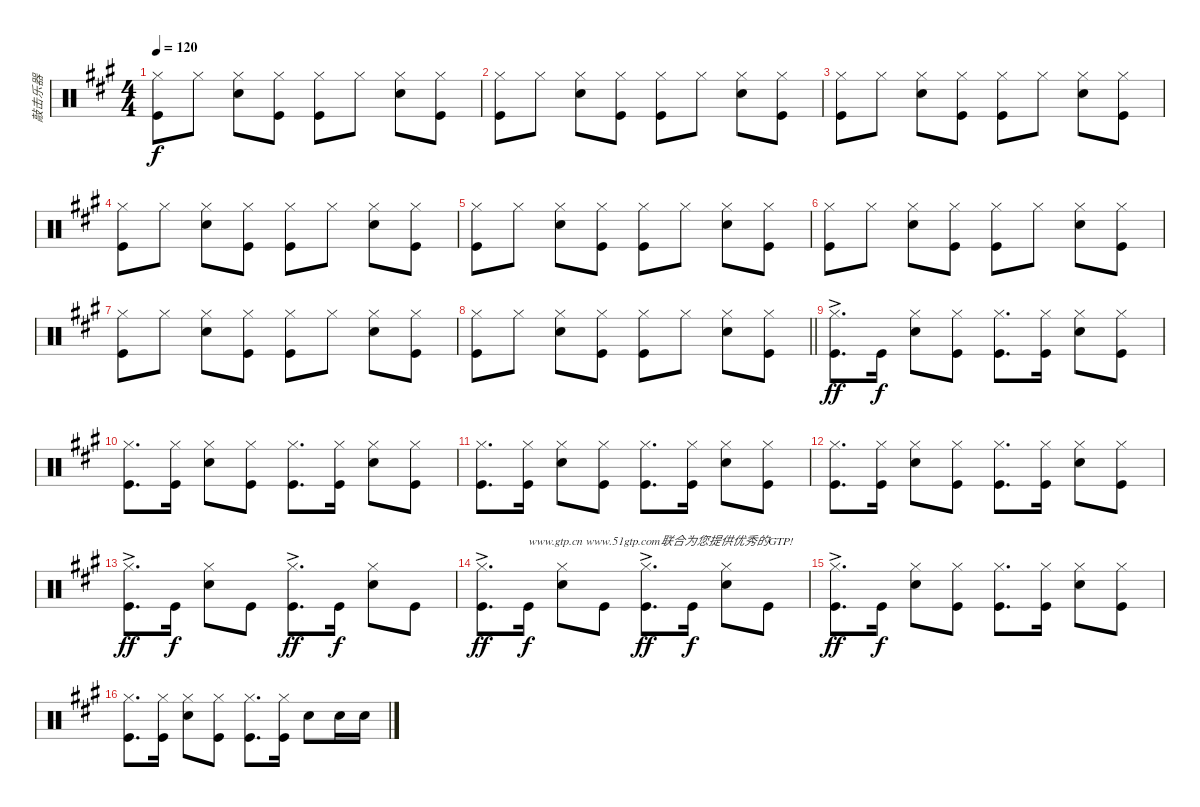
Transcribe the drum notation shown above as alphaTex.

\track ("敲击乐器" "敲击乐器") {instrument percussion}
\staff {score}
\articulation defaults
\ts (4 4)
\tempo 120
\clef neutral
\ks a
("Hi-Hat (closed)" "Kick (hit)").8{dy f} "Hi-Hat (closed)".8 ("Hi-Hat (closed)" "Snare (hit) 2").8 ("Hi-Hat (closed)" "Kick (hit)").8 ("Hi-Hat (closed)" "Kick (hit)").8 "Hi-Hat (closed)".8 ("Hi-Hat (closed)" "Snare (hit) 2").8 ("Hi-Hat (closed)" "Kick (hit)").8 |
("Hi-Hat (closed)" "Kick (hit)").8 "Hi-Hat (closed)".8 ("Hi-Hat (closed)" "Snare (hit) 2").8 ("Hi-Hat (closed)" "Kick (hit)").8 ("Hi-Hat (closed)" "Kick (hit)").8 "Hi-Hat (closed)".8 ("Hi-Hat (closed)" "Snare (hit) 2").8 ("Hi-Hat (closed)" "Kick (hit)").8 |
("Hi-Hat (closed)" "Kick (hit)").8 "Hi-Hat (closed)".8 ("Hi-Hat (closed)" "Snare (hit) 2").8 ("Hi-Hat (closed)" "Kick (hit)").8 ("Hi-Hat (closed)" "Kick (hit)").8 "Hi-Hat (closed)".8 ("Hi-Hat (closed)" "Snare (hit) 2").8 ("Hi-Hat (closed)" "Kick (hit)").8 |
("Hi-Hat (closed)" "Kick (hit)").8 "Hi-Hat (closed)".8 ("Hi-Hat (closed)" "Snare (hit) 2").8 ("Hi-Hat (closed)" "Kick (hit)").8 ("Hi-Hat (closed)" "Kick (hit)").8 "Hi-Hat (closed)".8 ("Hi-Hat (closed)" "Snare (hit) 2").8 ("Hi-Hat (closed)" "Kick (hit)").8 |
("Hi-Hat (closed)" "Kick (hit)").8 "Hi-Hat (closed)".8 ("Hi-Hat (closed)" "Snare (hit) 2").8 ("Hi-Hat (closed)" "Kick (hit)").8 ("Hi-Hat (closed)" "Kick (hit)").8 "Hi-Hat (closed)".8 ("Hi-Hat (closed)" "Snare (hit) 2").8 ("Hi-Hat (closed)" "Kick (hit)").8 |
("Hi-Hat (closed)" "Kick (hit)").8 "Hi-Hat (closed)".8 ("Hi-Hat (closed)" "Snare (hit) 2").8 ("Hi-Hat (closed)" "Kick (hit)").8 ("Hi-Hat (closed)" "Kick (hit)").8 "Hi-Hat (closed)".8 ("Hi-Hat (closed)" "Snare (hit) 2").8 ("Hi-Hat (closed)" "Kick (hit)").8 |
("Hi-Hat (closed)" "Kick (hit)").8 "Hi-Hat (closed)".8 ("Hi-Hat (closed)" "Snare (hit) 2").8 ("Hi-Hat (closed)" "Kick (hit)").8 ("Hi-Hat (closed)" "Kick (hit)").8 "Hi-Hat (closed)".8 ("Hi-Hat (closed)" "Snare (hit) 2").8 ("Hi-Hat (closed)" "Kick (hit)").8 |
\barLineRight lightlight
("Hi-Hat (closed)" "Kick (hit)").8 "Hi-Hat (closed)".8 ("Hi-Hat (closed)" "Snare (hit) 2").8 ("Hi-Hat (closed)" "Kick (hit)").8 ("Hi-Hat (closed)" "Kick (hit)").8 "Hi-Hat (closed)".8 ("Hi-Hat (closed)" "Snare (hit) 2").8 ("Hi-Hat (closed)" "Kick (hit)").8 |
("Hi-Hat (closed)"{ac} "Kick (hit)").8{d dy ff} "Kick (hit)".16{dy f} ("Hi-Hat (closed)" "Snare (hit) 2").8 ("Hi-Hat (closed)" "Kick (hit)").8 ("Hi-Hat (closed)" "Kick (hit)").8{d} ("Hi-Hat (closed)" "Kick (hit)").16 ("Hi-Hat (closed)" "Snare (hit) 2").8 ("Hi-Hat (closed)" "Kick (hit)").8 |
("Hi-Hat (closed)" "Kick (hit)").8{d} ("Hi-Hat (closed)" "Kick (hit)").16 ("Hi-Hat (closed)" "Snare (hit) 2").8 ("Hi-Hat (closed)" "Kick (hit)").8 ("Hi-Hat (closed)" "Kick (hit)").8{d} ("Hi-Hat (closed)" "Kick (hit)").16 ("Hi-Hat (closed)" "Snare (hit) 2").8 ("Hi-Hat (closed)" "Kick (hit)").8 |
("Hi-Hat (closed)" "Kick (hit)").8{d} ("Hi-Hat (closed)" "Kick (hit)").16 ("Hi-Hat (closed)" "Snare (hit) 2").8 ("Hi-Hat (closed)" "Kick (hit)").8 ("Hi-Hat (closed)" "Kick (hit)").8{d} ("Hi-Hat (closed)" "Kick (hit)").16 ("Hi-Hat (closed)" "Snare (hit) 2").8 ("Hi-Hat (closed)" "Kick (hit)").8 |
("Hi-Hat (closed)" "Kick (hit)").8{d} ("Hi-Hat (closed)" "Kick (hit)").16 ("Hi-Hat (closed)" "Snare (hit) 2").8 ("Hi-Hat (closed)" "Kick (hit)").8 ("Hi-Hat (closed)" "Kick (hit)").8{d} ("Hi-Hat (closed)" "Kick (hit)").16 ("Hi-Hat (closed)" "Snare (hit) 2").8 ("Hi-Hat (closed)" "Kick (hit)").8 |
("Hi-Hat (closed)"{ac} "Kick (hit)").8{d dy ff} "Kick (hit)".16{dy f} ("Hi-Hat (closed)" "Snare (hit) 2").8 "Kick (hit)".8 ("Hi-Hat (closed)"{ac} "Kick (hit)").8{d dy ff} "Kick (hit)".16{dy f} ("Hi-Hat (closed)" "Snare (hit) 2").8 "Kick (hit)".8 |
("Hi-Hat (closed)"{ac} "Kick (hit)").8{d dy ff} "Kick (hit)".16{txt "www.gtp.cn www.51gtp.com联合为您提供优秀的GTP!" dy f} ("Hi-Hat (closed)" "Snare (hit) 2").8 "Kick (hit)".8 ("Hi-Hat (closed)"{ac} "Kick (hit)").8{d dy ff} "Kick (hit)".16{dy f} ("Hi-Hat (closed)" "Snare (hit) 2").8 "Kick (hit)".8 |
("Hi-Hat (closed)"{ac} "Kick (hit)").8{d dy ff} "Kick (hit)".16{dy f} ("Hi-Hat (closed)" "Snare (hit) 2").8 ("Hi-Hat (closed)" "Kick (hit)").8 ("Hi-Hat (closed)" "Kick (hit)").8{d} ("Hi-Hat (closed)" "Kick (hit)").16 ("Hi-Hat (closed)" "Snare (hit) 2").8 ("Hi-Hat (closed)" "Kick (hit)").8 |
("Hi-Hat (closed)" "Kick (hit)").8{d} ("Hi-Hat (closed)" "Kick (hit)").16 ("Hi-Hat (closed)" "Snare (hit) 2").8 ("Hi-Hat (closed)" "Kick (hit)").8 ("Hi-Hat (closed)" "Kick (hit)").8{d} ("Hi-Hat (closed)" "Kick (hit)").16 "Snare (hit) 2".8 "Snare (hit) 2".16 "Snare (hit) 2".16
